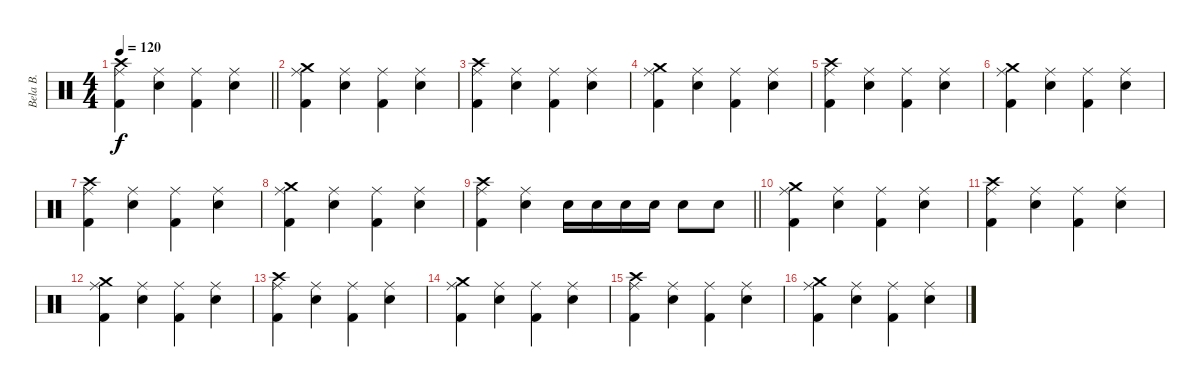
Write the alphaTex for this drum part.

\track ("Bela B." "Bela B.") {instrument percussion}
\staff {score}
\articulation defaults
\ts (4 4)
\tempo 120
\clef neutral
\barLineRight lightlight
\ks c
("Crash high (hit)" "Ride (middle)" "Kick (hit) 2").4{dy f} ("Ride (middle)" "Snare (hit) 2").4 ("Ride (middle)" "Kick (hit) 2").4 ("Ride (middle)" "Snare (hit) 2").4 |
("Crash medium (hit)" "Ride (middle)" "Kick (hit) 2").4 ("Ride (middle)" "Snare (hit) 2").4 ("Ride (middle)" "Kick (hit) 2").4 ("Ride (middle)" "Snare (hit) 2").4 |
("Crash high (hit)" "Ride (middle)" "Kick (hit) 2").4 ("Ride (middle)" "Snare (hit) 2").4 ("Ride (middle)" "Kick (hit) 2").4 ("Ride (middle)" "Snare (hit) 2").4 |
("Crash medium (hit)" "Ride (middle)" "Kick (hit) 2").4 ("Ride (middle)" "Snare (hit) 2").4 ("Ride (middle)" "Kick (hit) 2").4 ("Ride (middle)" "Snare (hit) 2").4 |
("Crash high (hit)" "Ride (middle)" "Kick (hit) 2").4 ("Ride (middle)" "Snare (hit) 2").4 ("Ride (middle)" "Kick (hit) 2").4 ("Ride (middle)" "Snare (hit) 2").4 |
("Crash medium (hit)" "Ride (middle)" "Kick (hit) 2").4 ("Ride (middle)" "Snare (hit) 2").4 ("Ride (middle)" "Kick (hit) 2").4 ("Ride (middle)" "Snare (hit) 2").4 |
("Crash high (hit)" "Ride (middle)" "Kick (hit) 2").4 ("Ride (middle)" "Snare (hit) 2").4 ("Ride (middle)" "Kick (hit) 2").4 ("Ride (middle)" "Snare (hit) 2").4 |
("Crash medium (hit)" "Ride (middle)" "Kick (hit) 2").4 ("Ride (middle)" "Snare (hit) 2").4 ("Ride (middle)" "Kick (hit) 2").4 ("Ride (middle)" "Snare (hit) 2").4 |
\barLineRight lightlight
("Crash high (hit)" "Ride (middle)" "Kick (hit) 2").4 ("Ride (middle)" "Snare (hit) 2").4 "Snare (hit) 2".16 "Snare (hit) 2".16 "Snare (hit) 2".16 "Snare (hit) 2".16 "Snare (hit) 2".8 "Snare (hit) 2".8 |
("Crash medium (hit)" "Ride (middle)" "Kick (hit) 2").4 ("Ride (middle)" "Snare (hit) 2").4 ("Ride (middle)" "Kick (hit) 2").4 ("Ride (middle)" "Snare (hit) 2").4 |
("Crash high (hit)" "Ride (middle)" "Kick (hit) 2").4 ("Ride (middle)" "Snare (hit) 2").4 ("Ride (middle)" "Kick (hit) 2").4 ("Ride (middle)" "Snare (hit) 2").4 |
("Crash medium (hit)" "Ride (middle)" "Kick (hit) 2").4 ("Ride (middle)" "Snare (hit) 2").4 ("Ride (middle)" "Kick (hit) 2").4 ("Ride (middle)" "Snare (hit) 2").4 |
("Crash high (hit)" "Ride (middle)" "Kick (hit) 2").4 ("Ride (middle)" "Snare (hit) 2").4 ("Ride (middle)" "Kick (hit) 2").4 ("Ride (middle)" "Snare (hit) 2").4 |
("Crash medium (hit)" "Ride (middle)" "Kick (hit) 2").4 ("Ride (middle)" "Snare (hit) 2").4 ("Ride (middle)" "Kick (hit) 2").4 ("Ride (middle)" "Snare (hit) 2").4 |
("Crash high (hit)" "Ride (middle)" "Kick (hit) 2").4 ("Ride (middle)" "Snare (hit) 2").4 ("Ride (middle)" "Kick (hit) 2").4 ("Ride (middle)" "Snare (hit) 2").4 |
("Crash medium (hit)" "Ride (middle)" "Kick (hit) 2").4 ("Ride (middle)" "Snare (hit) 2").4 ("Ride (middle)" "Kick (hit) 2").4 ("Ride (middle)" "Snare (hit) 2").4
